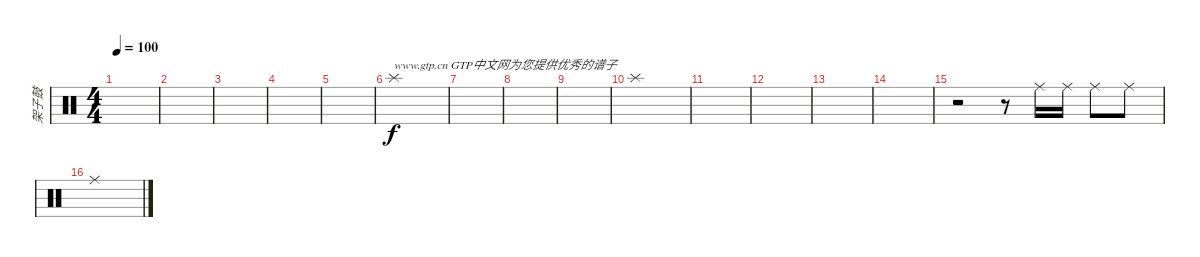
\track ("架子鼓" "架子鼓") {instrument percussion}
\staff {score}
\articulation defaults
\ts (4 4)
\tempo 100
\clef neutral
\ks c
|
|
|
|
|
"Splash (hit)".1{txt "www.gtp.cn GTP中文网为您提供优秀的谱子"} |
|
|
|
"Splash (hit)".1 |
|
|
|
|
r.2 r.8 "Ride (middle)".16 "Ride (middle)".16 "Ride (middle)".8 "Ride (middle)".8 |
"Ride (middle)".1
